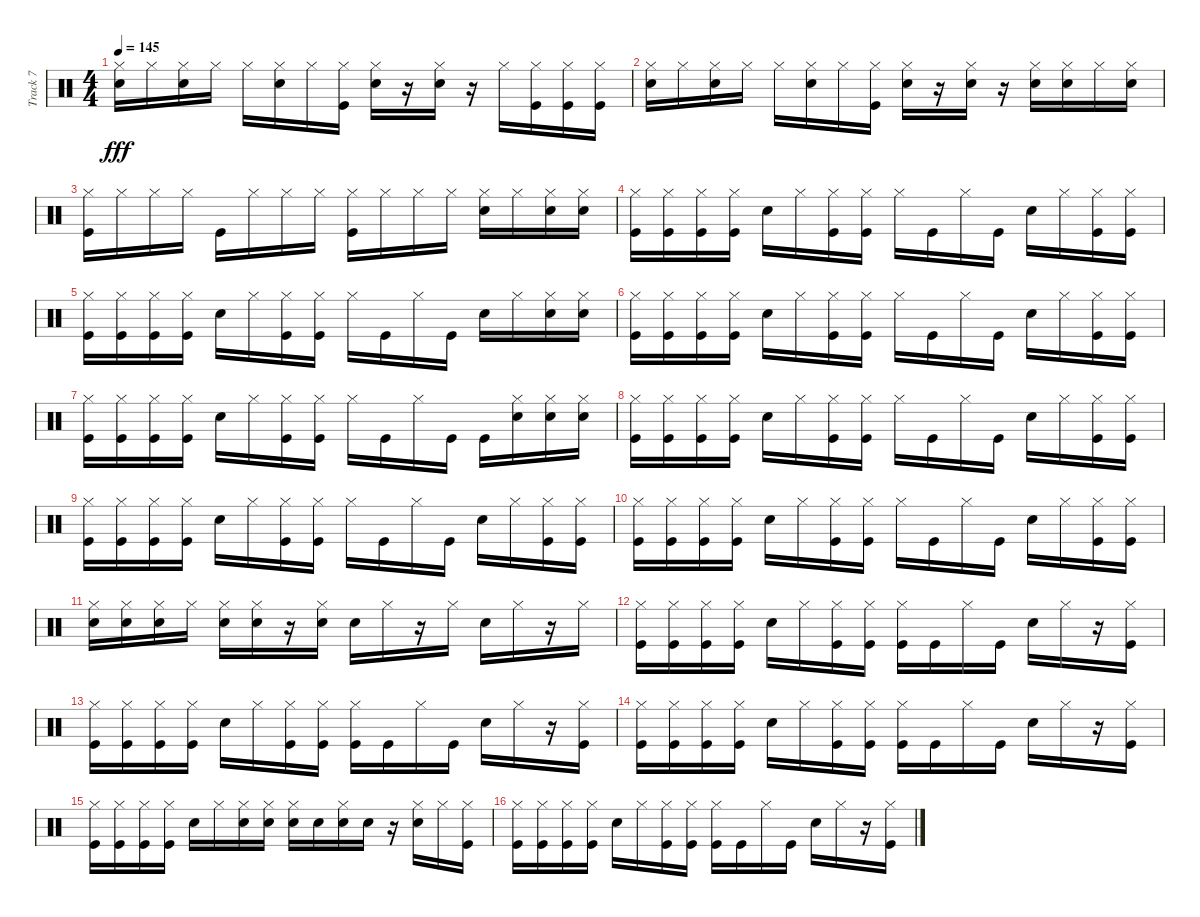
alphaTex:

\track ("Track 7" "Track 7") {instrument percussion}
\staff {score}
\articulation defaults
\ts (4 4)
\tempo 145
\clef neutral
\ks c
("Snare (hit) 2" "Hi-Hat (closed)").16{dy fff} "Hi-Hat (closed)".16 ("Snare (hit) 2" "Hi-Hat (closed)").16 "Hi-Hat (closed)".16 "Hi-Hat (closed)".16 ("Snare (hit) 2" "Hi-Hat (closed)").16 "Hi-Hat (closed)".16 ("Kick (hit)" "Hi-Hat (closed)").16 ("Snare (hit) 2" "Hi-Hat (closed)").16 r.16 ("Snare (hit) 2" "Hi-Hat (closed)").16 r.16 "Hi-Hat (closed)".16 ("Kick (hit)" "Hi-Hat (closed)").16 ("Kick (hit)" "Hi-Hat (closed)").16 ("Kick (hit)" "Hi-Hat (closed)").16 |
("Snare (hit) 2" "Hi-Hat (closed)").16 "Hi-Hat (closed)".16 ("Snare (hit) 2" "Hi-Hat (closed)").16 "Hi-Hat (closed)".16 "Hi-Hat (closed)".16 ("Snare (hit) 2" "Hi-Hat (closed)").16 "Hi-Hat (closed)".16 ("Kick (hit)" "Hi-Hat (closed)").16 ("Snare (hit) 2" "Hi-Hat (closed)").16 r.16 ("Snare (hit) 2" "Hi-Hat (closed)").16 r.16 ("Snare (hit) 2" "Hi-Hat (closed)").16 ("Snare (hit) 2" "Hi-Hat (closed)").16 "Hi-Hat (closed)".16 ("Snare (hit) 2" "Hi-Hat (closed)").16 |
("Kick (hit)" "Hi-Hat (closed)").16 "Hi-Hat (closed)".16 "Hi-Hat (closed)".16 "Hi-Hat (closed)".16 "Kick (hit)".16 "Hi-Hat (closed)".16 "Hi-Hat (closed)".16 "Hi-Hat (closed)".16 ("Kick (hit)" "Hi-Hat (closed)").16 "Hi-Hat (closed)".16 "Hi-Hat (closed)".16 "Hi-Hat (closed)".16 ("Snare (hit) 2" "Hi-Hat (closed)").16 "Hi-Hat (closed)".16 ("Snare (hit) 2" "Hi-Hat (closed)").16 ("Snare (hit) 2" "Hi-Hat (closed)").16 |
("Kick (hit)" "Hi-Hat (closed)").16 ("Kick (hit)" "Hi-Hat (closed)").16 ("Kick (hit)" "Hi-Hat (closed)").16 ("Kick (hit)" "Hi-Hat (closed)").16 "Snare (hit) 2".16 "Hi-Hat (closed)".16 ("Kick (hit)" "Hi-Hat (closed)").16 ("Kick (hit)" "Hi-Hat (closed)").16 "Hi-Hat (closed)".16 "Kick (hit)".16 "Hi-Hat (closed)".16 "Kick (hit)".16 "Snare (hit) 2".16 "Hi-Hat (closed)".16 ("Kick (hit)" "Hi-Hat (closed)").16 ("Kick (hit)" "Hi-Hat (closed)").16 |
("Kick (hit)" "Hi-Hat (closed)").16 ("Kick (hit)" "Hi-Hat (closed)").16 ("Kick (hit)" "Hi-Hat (closed)").16 ("Kick (hit)" "Hi-Hat (closed)").16 "Snare (hit) 2".16 "Hi-Hat (closed)".16 ("Kick (hit)" "Hi-Hat (closed)").16 ("Kick (hit)" "Hi-Hat (closed)").16 "Hi-Hat (closed)".16 "Kick (hit)".16 "Hi-Hat (closed)".16 "Kick (hit)".16 "Snare (hit) 2".16 "Hi-Hat (closed)".16 ("Snare (hit) 2" "Hi-Hat (closed)").16 ("Snare (hit) 2" "Hi-Hat (closed)").16 |
("Kick (hit)" "Hi-Hat (closed)").16 ("Kick (hit)" "Hi-Hat (closed)").16 ("Kick (hit)" "Hi-Hat (closed)").16 ("Kick (hit)" "Hi-Hat (closed)").16 "Snare (hit) 2".16 "Hi-Hat (closed)".16 ("Kick (hit)" "Hi-Hat (closed)").16 ("Kick (hit)" "Hi-Hat (closed)").16 "Hi-Hat (closed)".16 "Kick (hit)".16 "Hi-Hat (closed)".16 "Kick (hit)".16 "Snare (hit) 2".16 "Hi-Hat (closed)".16 ("Kick (hit)" "Hi-Hat (closed)").16 ("Kick (hit)" "Hi-Hat (closed)").16 |
("Kick (hit)" "Hi-Hat (closed)").16 ("Kick (hit)" "Hi-Hat (closed)").16 ("Kick (hit)" "Hi-Hat (closed)").16 ("Kick (hit)" "Hi-Hat (closed)").16 "Snare (hit) 2".16 "Hi-Hat (closed)".16 ("Kick (hit)" "Hi-Hat (closed)").16 ("Kick (hit)" "Hi-Hat (closed)").16 "Hi-Hat (closed)".16 "Kick (hit)".16 "Hi-Hat (closed)".16 "Kick (hit)".16 "Kick (hit)".16 ("Snare (hit) 2" "Hi-Hat (closed)").16 ("Snare (hit) 2" "Hi-Hat (closed)").16 ("Snare (hit) 2" "Hi-Hat (closed)").16 |
("Kick (hit)" "Hi-Hat (closed)").16 ("Kick (hit)" "Hi-Hat (closed)").16 ("Kick (hit)" "Hi-Hat (closed)").16 ("Kick (hit)" "Hi-Hat (closed)").16 "Snare (hit) 2".16 "Hi-Hat (closed)".16 ("Kick (hit)" "Hi-Hat (closed)").16 ("Kick (hit)" "Hi-Hat (closed)").16 "Hi-Hat (closed)".16 "Kick (hit)".16 "Hi-Hat (closed)".16 "Kick (hit)".16 "Snare (hit) 2".16 "Hi-Hat (closed)".16 ("Kick (hit)" "Hi-Hat (closed)").16 ("Kick (hit)" "Hi-Hat (closed)").16 |
("Kick (hit)" "Hi-Hat (closed)").16 ("Kick (hit)" "Hi-Hat (closed)").16 ("Kick (hit)" "Hi-Hat (closed)").16 ("Kick (hit)" "Hi-Hat (closed)").16 "Snare (hit) 2".16 "Hi-Hat (closed)".16 ("Kick (hit)" "Hi-Hat (closed)").16 ("Kick (hit)" "Hi-Hat (closed)").16 "Hi-Hat (closed)".16 "Kick (hit)".16 "Hi-Hat (closed)".16 "Kick (hit)".16 "Snare (hit) 2".16 "Hi-Hat (closed)".16 ("Kick (hit)" "Hi-Hat (closed)").16 ("Kick (hit)" "Hi-Hat (closed)").16 |
("Kick (hit)" "Hi-Hat (closed)").16 ("Kick (hit)" "Hi-Hat (closed)").16 ("Kick (hit)" "Hi-Hat (closed)").16 ("Kick (hit)" "Hi-Hat (closed)").16 "Snare (hit) 2".16 "Hi-Hat (closed)".16 ("Kick (hit)" "Hi-Hat (closed)").16 ("Kick (hit)" "Hi-Hat (closed)").16 "Hi-Hat (closed)".16 "Kick (hit)".16 "Hi-Hat (closed)".16 "Kick (hit)".16 "Snare (hit) 2".16 "Hi-Hat (closed)".16 ("Kick (hit)" "Hi-Hat (closed)").16 ("Kick (hit)" "Hi-Hat (closed)").16 |
("Snare (hit) 2" "Hi-Hat (closed)").16 ("Snare (hit) 2" "Hi-Hat (closed)").16 ("Snare (hit) 2" "Hi-Hat (closed)").16 "Hi-Hat (closed)".16 ("Snare (hit) 2" "Hi-Hat (closed)").16 ("Snare (hit) 2" "Hi-Hat (closed)").16 r.16 ("Snare (hit) 2" "Hi-Hat (closed)").16 "Snare (hit) 2".16 "Hi-Hat (closed)".16 r.16 "Hi-Hat (closed)".16 "Snare (hit) 2".16 "Hi-Hat (closed)".16 r.16 "Hi-Hat (closed)".16 |
("Kick (hit)" "Hi-Hat (closed)").16 ("Kick (hit)" "Hi-Hat (closed)").16 ("Kick (hit)" "Hi-Hat (closed)").16 ("Kick (hit)" "Hi-Hat (closed)").16 "Snare (hit) 2".16 "Hi-Hat (closed)".16 ("Kick (hit)" "Hi-Hat (closed)").16 ("Kick (hit)" "Hi-Hat (closed)").16 ("Kick (hit)" "Hi-Hat (closed)").16 "Kick (hit)".16 "Hi-Hat (closed)".16 "Kick (hit)".16 "Snare (hit) 2".16 "Hi-Hat (closed)".16 r.16 ("Kick (hit)" "Hi-Hat (closed)").16 |
("Kick (hit)" "Hi-Hat (closed)").16 ("Kick (hit)" "Hi-Hat (closed)").16 ("Kick (hit)" "Hi-Hat (closed)").16 ("Kick (hit)" "Hi-Hat (closed)").16 "Snare (hit) 2".16 "Hi-Hat (closed)".16 ("Kick (hit)" "Hi-Hat (closed)").16 ("Kick (hit)" "Hi-Hat (closed)").16 ("Kick (hit)" "Hi-Hat (closed)").16 "Kick (hit)".16 "Hi-Hat (closed)".16 "Kick (hit)".16 "Snare (hit) 2".16 "Hi-Hat (closed)".16 r.16 ("Kick (hit)" "Hi-Hat (closed)").16 |
("Kick (hit)" "Hi-Hat (closed)").16 ("Kick (hit)" "Hi-Hat (closed)").16 ("Kick (hit)" "Hi-Hat (closed)").16 ("Kick (hit)" "Hi-Hat (closed)").16 "Snare (hit) 2".16 "Hi-Hat (closed)".16 ("Kick (hit)" "Hi-Hat (closed)").16 ("Kick (hit)" "Hi-Hat (closed)").16 ("Kick (hit)" "Hi-Hat (closed)").16 "Kick (hit)".16 "Hi-Hat (closed)".16 "Kick (hit)".16 "Snare (hit) 2".16 "Hi-Hat (closed)".16 r.16 ("Kick (hit)" "Hi-Hat (closed)").16 |
("Kick (hit)" "Hi-Hat (closed)").16 ("Kick (hit)" "Hi-Hat (closed)").16 ("Kick (hit)" "Hi-Hat (closed)").16 ("Kick (hit)" "Hi-Hat (closed)").16 "Snare (hit) 2".16 "Hi-Hat (closed)".16 ("Snare (hit) 2" "Hi-Hat (closed)").16 ("Snare (hit) 2" "Hi-Hat (closed)").16 ("Snare (hit) 2" "Hi-Hat (closed)").16 "Snare (hit) 2".16 ("Snare (hit) 2" "Hi-Hat (closed)").16 "Snare (hit) 2".16 r.16 ("Snare (hit) 2" "Hi-Hat (closed)").16 "Hi-Hat (closed)".16 ("Kick (hit)" "Hi-Hat (closed)").16 |
("Kick (hit)" "Hi-Hat (closed)").16 ("Kick (hit)" "Hi-Hat (closed)").16 ("Kick (hit)" "Hi-Hat (closed)").16 ("Kick (hit)" "Hi-Hat (closed)").16 "Snare (hit) 2".16 "Hi-Hat (closed)".16 ("Kick (hit)" "Hi-Hat (closed)").16 ("Kick (hit)" "Hi-Hat (closed)").16 ("Kick (hit)" "Hi-Hat (closed)").16 "Kick (hit)".16 "Hi-Hat (closed)".16 "Kick (hit)".16 "Snare (hit) 2".16 "Hi-Hat (closed)".16 r.16 ("Kick (hit)" "Hi-Hat (closed)").16
